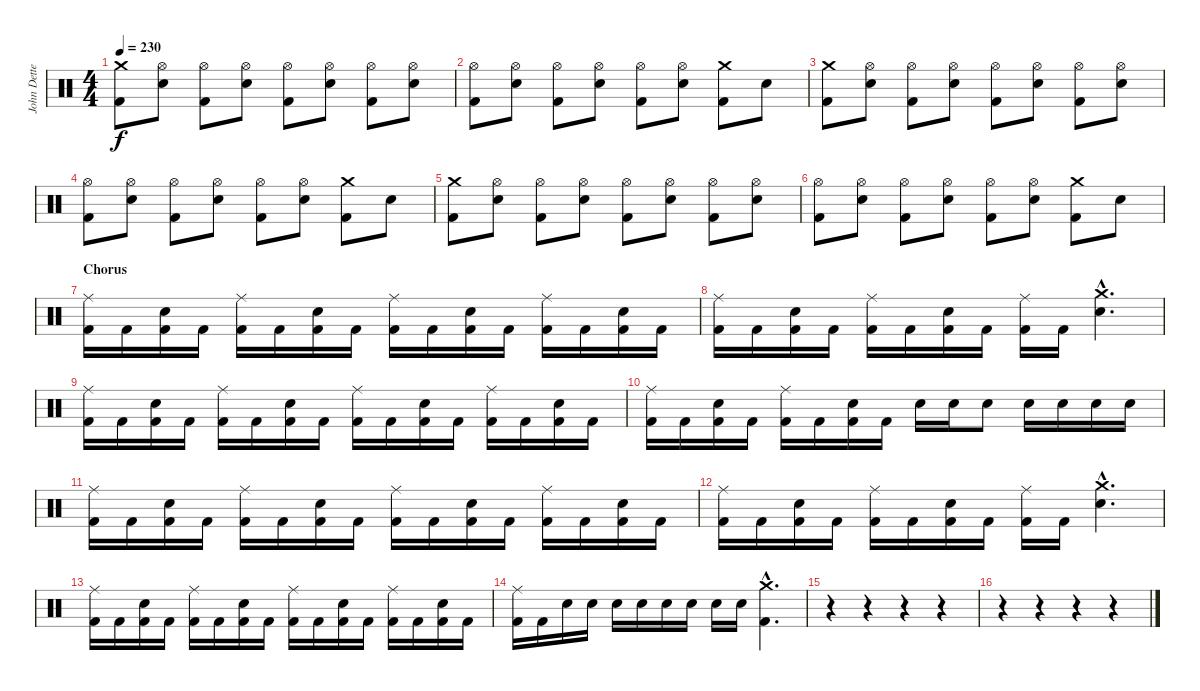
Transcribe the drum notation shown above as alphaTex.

\track ("John Dette" "John Dette") {instrument percussion}
\staff {score}
\articulation defaults
\ts (4 4)
\tempo 230
\clef neutral
\ks c
("Crash medium (hit)" "Kick (hit) 2").8{dy f} ("Hi-Hat (open)" "Snare (hit) 2").8 ("Hi-Hat (open)" "Kick (hit) 2").8 ("Hi-Hat (open)" "Snare (hit) 2").8 ("Hi-Hat (open)" "Kick (hit) 2").8 ("Hi-Hat (open)" "Snare (hit) 2").8 ("Hi-Hat (open)" "Kick (hit) 2").8 ("Hi-Hat (open)" "Snare (hit) 2").8 |
("Hi-Hat (open)" "Kick (hit) 2").8 ("Hi-Hat (open)" "Snare (hit) 2").8 ("Hi-Hat (open)" "Kick (hit) 2").8 ("Hi-Hat (open)" "Snare (hit) 2").8 ("Hi-Hat (open)" "Kick (hit) 2").8 ("Hi-Hat (open)" "Snare (hit) 2").8 ("Crash medium (hit)" "Kick (hit) 2").8 "Snare (hit) 2".8 |
("Crash medium (hit)" "Kick (hit) 2").8 ("Hi-Hat (open)" "Snare (hit) 2").8 ("Hi-Hat (open)" "Kick (hit) 2").8 ("Hi-Hat (open)" "Snare (hit) 2").8 ("Hi-Hat (open)" "Kick (hit) 2").8 ("Hi-Hat (open)" "Snare (hit) 2").8 ("Hi-Hat (open)" "Kick (hit) 2").8 ("Hi-Hat (open)" "Snare (hit) 2").8 |
("Hi-Hat (open)" "Kick (hit) 2").8 ("Hi-Hat (open)" "Snare (hit) 2").8 ("Hi-Hat (open)" "Kick (hit) 2").8 ("Hi-Hat (open)" "Snare (hit) 2").8 ("Hi-Hat (open)" "Kick (hit) 2").8 ("Hi-Hat (open)" "Snare (hit) 2").8 ("Crash medium (hit)" "Kick (hit) 2").8 "Snare (hit) 2".8 |
("Crash medium (hit)" "Kick (hit) 2").8 ("Hi-Hat (open)" "Snare (hit) 2").8 ("Hi-Hat (open)" "Kick (hit) 2").8 ("Hi-Hat (open)" "Snare (hit) 2").8 ("Hi-Hat (open)" "Kick (hit) 2").8 ("Hi-Hat (open)" "Snare (hit) 2").8 ("Hi-Hat (open)" "Kick (hit) 2").8 ("Hi-Hat (open)" "Snare (hit) 2").8 |
("Hi-Hat (open)" "Kick (hit) 2").8 ("Hi-Hat (open)" "Snare (hit) 2").8 ("Hi-Hat (open)" "Kick (hit) 2").8 ("Hi-Hat (open)" "Snare (hit) 2").8 ("Hi-Hat (open)" "Kick (hit) 2").8 ("Hi-Hat (open)" "Snare (hit) 2").8 ("Crash medium (hit)" "Kick (hit) 2").8 "Snare (hit) 2".8 |
\section ("" "Chorus")
("Ride (middle)" "Kick (hit) 2").16 "Kick (hit) 2".16 ("Snare (hit) 2" "Kick (hit) 2").16 "Kick (hit) 2".16 ("Ride (middle)" "Kick (hit) 2").16 "Kick (hit) 2".16 ("Snare (hit) 2" "Kick (hit) 2").16 "Kick (hit) 2".16 ("Ride (middle)" "Kick (hit) 2").16 "Kick (hit) 2".16 ("Snare (hit) 2" "Kick (hit) 2").16 "Kick (hit) 2".16 ("Ride (middle)" "Kick (hit) 2").16 "Kick (hit) 2".16 ("Snare (hit) 2" "Kick (hit) 2").16 "Kick (hit) 2".16 |
("Ride (middle)" "Kick (hit) 2").16 "Kick (hit) 2".16 ("Snare (hit) 2" "Kick (hit) 2").16 "Kick (hit) 2".16 ("Ride (middle)" "Kick (hit) 2").16 "Kick (hit) 2".16 ("Snare (hit) 2" "Kick (hit) 2").16 "Kick (hit) 2".16 ("Ride (middle)" "Kick (hit) 2").16 "Kick (hit) 2".16 ("Crash medium (hit)"{hac} "Snare (hit) 2"{hac}).4{d} |
("Ride (middle)" "Kick (hit) 2").16 "Kick (hit) 2".16 ("Snare (hit) 2" "Kick (hit) 2").16 "Kick (hit) 2".16 ("Ride (middle)" "Kick (hit) 2").16 "Kick (hit) 2".16 ("Snare (hit) 2" "Kick (hit) 2").16 "Kick (hit) 2".16 ("Ride (middle)" "Kick (hit) 2").16 "Kick (hit) 2".16 ("Snare (hit) 2" "Kick (hit) 2").16 "Kick (hit) 2".16 ("Ride (middle)" "Kick (hit) 2").16 "Kick (hit) 2".16 ("Snare (hit) 2" "Kick (hit) 2").16 "Kick (hit) 2".16 |
("Ride (middle)" "Kick (hit) 2").16 "Kick (hit) 2".16 ("Snare (hit) 2" "Kick (hit) 2").16 "Kick (hit) 2".16 ("Ride (middle)" "Kick (hit) 2").16 "Kick (hit) 2".16 ("Snare (hit) 2" "Kick (hit) 2").16 "Kick (hit) 2".16 "Snare (hit) 2".16 "Snare (hit) 2".16 "Snare (hit) 2".8 "Snare (hit) 2".16 "Snare (hit) 2".16 "Snare (hit) 2".16 "Snare (hit) 2".16 |
("Ride (middle)" "Kick (hit) 2").16 "Kick (hit) 2".16 ("Snare (hit) 2" "Kick (hit) 2").16 "Kick (hit) 2".16 ("Ride (middle)" "Kick (hit) 2").16 "Kick (hit) 2".16 ("Snare (hit) 2" "Kick (hit) 2").16 "Kick (hit) 2".16 ("Ride (middle)" "Kick (hit) 2").16 "Kick (hit) 2".16 ("Snare (hit) 2" "Kick (hit) 2").16 "Kick (hit) 2".16 ("Ride (middle)" "Kick (hit) 2").16 "Kick (hit) 2".16 ("Snare (hit) 2" "Kick (hit) 2").16 "Kick (hit) 2".16 |
("Ride (middle)" "Kick (hit) 2").16 "Kick (hit) 2".16 ("Snare (hit) 2" "Kick (hit) 2").16 "Kick (hit) 2".16 ("Ride (middle)" "Kick (hit) 2").16 "Kick (hit) 2".16 ("Snare (hit) 2" "Kick (hit) 2").16 "Kick (hit) 2".16 ("Ride (middle)" "Kick (hit) 2").16 "Kick (hit) 2".16 ("Crash medium (hit)"{hac} "Snare (hit) 2"{hac}).4{d} |
("Ride (middle)" "Kick (hit) 2").16 "Kick (hit) 2".16 ("Snare (hit) 2" "Kick (hit) 2").16 "Kick (hit) 2".16 ("Ride (middle)" "Kick (hit) 2").16 "Kick (hit) 2".16 ("Snare (hit) 2" "Kick (hit) 2").16 "Kick (hit) 2".16 ("Ride (middle)" "Kick (hit) 2").16 "Kick (hit) 2".16 ("Snare (hit) 2" "Kick (hit) 2").16 "Kick (hit) 2".16 ("Ride (middle)" "Kick (hit) 2").16 "Kick (hit) 2".16 ("Snare (hit) 2" "Kick (hit) 2").16 "Kick (hit) 2".16 |
("Ride (middle)" "Kick (hit) 2").16 "Kick (hit) 2".16 "Snare (hit) 2".16 "Snare (hit) 2".16 "Snare (hit) 2".16 "Snare (hit) 2".16 "Snare (hit) 2".16 "Snare (hit) 2".16 "Snare (hit) 2".16 "Snare (hit) 2".16 ("Crash medium (hit)"{hac} "Kick (hit) 2"{hac}).4{d} |
r.4 r.4 r.4 r.4 |
r.4 r.4 r.4 r.4
